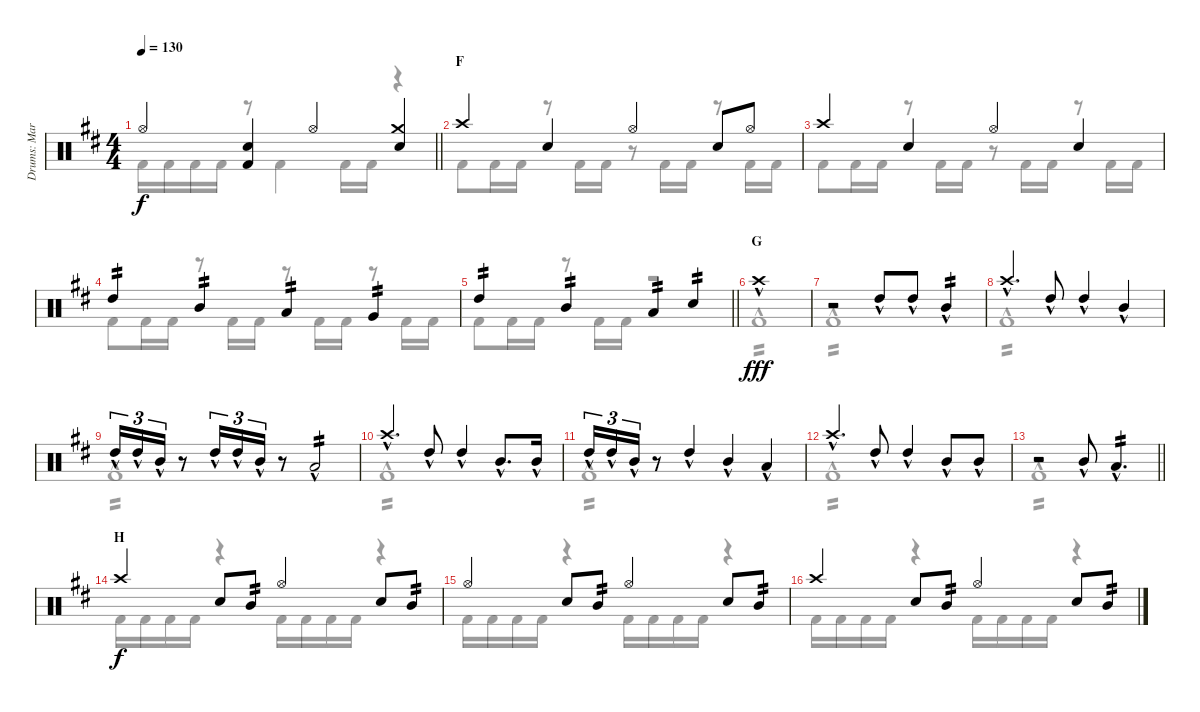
\track ("Drums: Mark" "Drums: Mar") {instrument percussion}
\staff {score}
\articulation defaults
\voice
\ts (4 4)
\tempo 130
\clef neutral
\barLineRight lightlight
\ks d "Hi-Hat (open)".4{dy f}
("Snare (hit) 2" "Kick (hit) 2").4 "Hi-Hat (open)".4 ("Crash medium (hit)" "Snare (hit) 2").4 |
\section ("" "F")
"Crash high (hit)".4 "Snare (hit) 2".4 "Hi-Hat (open)".4 "Snare (hit) 2".8 "Hi-Hat (open)".8 |
"Crash high (hit)".4 "Snare (hit) 2".4 "Hi-Hat (open)".4 "Snare (hit) 2".4 |
"High Tom (hit)".4{tp 2} "Mid Tom (hit)".4{tp 2} "Low Tom (hit)".4{tp 2} "Very Low Tom (hit)".4{tp 2} |
\barLineRight lightlight "High Tom (hit)".4{tp 2} "Mid Tom (hit)".4{tp 2} "Low Tom (hit)".4{tp 2} "Snare (hit) 2".4{tp 2}
|
\section ("" "G")
"Crash high (hit)"{hac}.1{dy fff} |
r.2 "High Tom (hit)"{hac}.8 "High Tom (hit)"{hac}.8 "Mid Tom (hit)"{hac}.4{tp 2} |
"Crash high (hit)"{hac}.4{d} "High Tom (hit)"{hac}.8 "High Tom (hit)"{hac}.4 "Mid Tom (hit)"{hac}.4 |
"High Tom (hit)"{hac}.16{tu (3 2)} "High Tom (hit)"{hac}.16{tu (3 2)} "Mid Tom (hit)"{hac}.16{tu (3 2)} r.8 "High Tom (hit)"{hac}.16{tu (3 2)} "High Tom (hit)"{hac}.16{tu (3 2)} "Mid Tom (hit)"{hac}.16{tu (3 2)} r.8 "Low Tom (hit)"{hac}.2{tp 2} |
"Crash high (hit)"{hac}.4{d} "High Tom (hit)"{hac}.8 "High Tom (hit)"{hac}.4 "Mid Tom (hit)"{hac}.8{d} "Mid Tom (hit)"{hac}.16 |
"High Tom (hit)"{hac}.16{tu (3 2)} "High Tom (hit)"{hac}.16{tu (3 2)} "Mid Tom (hit)"{hac}.16{tu (3 2)} r.8 "High Tom (hit)"{hac}.4 "Mid Tom (hit)"{hac}.4 "Low Tom (hit)"{hac}.4 |
"Crash high (hit)"{hac}.4{d} "High Tom (hit)"{hac}.8 "High Tom (hit)"{hac}.4 "Mid Tom (hit)"{hac}.8 "Mid Tom (hit)"{hac}.8 |
\barLineRight lightlight
r.2 "Mid Tom (hit)"{hac}.8 "Low Tom (hit)"{hac}.4{d tp 2} |
\section ("" "H")
"Crash high (hit)".4{dy f} "Snare (hit) 2".8 "Mid Tom (hit)".8{tp 2} "Hi-Hat (open)".4 "Snare (hit) 2".8 "Mid Tom (hit)".8{tp 2} |
"Hi-Hat (open)".4 "Snare (hit) 2".8 "Mid Tom (hit)".8{tp 2} "Hi-Hat (open)".4 "Snare (hit) 2".8 "Mid Tom (hit)".8{tp 2} |
"Crash high (hit)".4 "Snare (hit) 2".8 "Mid Tom (hit)".8{tp 2} "Hi-Hat (open)".4 "Snare (hit) 2".8 "Mid Tom (hit)".8{tp 2}
\voice
\clef neutral
\ottava regular
\simile none
\barLineRight lightlight
\ks d "Kick (hit) 2".16{dy f} "Kick (hit) 2".16 "Kick (hit) 2".16 "Kick (hit) 2".16
r.8 "Kick (hit) 2".4 "Kick (hit) 2".16 "Kick (hit) 2".16 r.4 |
"Kick (hit) 2".8 "Kick (hit) 2".16 "Kick (hit) 2".16 r.8 "Kick (hit) 2".16 "Kick (hit) 2".16 r.8 "Kick (hit) 2".16 "Kick (hit) 2".16 r.8 "Kick (hit) 2".16 "Kick (hit) 2".16 |
"Kick (hit) 2".8 "Kick (hit) 2".16 "Kick (hit) 2".16 r.8 "Kick (hit) 2".16 "Kick (hit) 2".16 r.8 "Kick (hit) 2".16 "Kick (hit) 2".16 r.8 "Kick (hit) 2".16 "Kick (hit) 2".16 |
"Kick (hit) 2".8 "Kick (hit) 2".16 "Kick (hit) 2".16 r.8 "Kick (hit) 2".16 "Kick (hit) 2".16 r.8 "Kick (hit) 2".16 "Kick (hit) 2".16 r.8 "Kick (hit) 2".16 "Kick (hit) 2".16 |
\barLineRight lightlight "Kick (hit) 2".8 "Kick (hit) 2".16 "Kick (hit) 2".16
r.8 "Kick (hit) 2".16 "Kick (hit) 2".16 r.2 |
"Kick (hit) 2"{hac}.1{tp 2 dy fff} |
"Kick (hit) 2"{hac}.1{tp 2} |
"Kick (hit) 2"{hac}.1{tp 2} |
"Kick (hit) 2"{hac}.1{tp 2} |
"Kick (hit) 2"{hac}.1{tp 2} |
"Kick (hit) 2"{hac}.1{tp 2} |
"Kick (hit) 2"{hac}.1{tp 2} |
\barLineRight lightlight "Kick (hit) 2"{hac}.1{tp 2}
|
"Kick (hit) 2".16{dy f} "Kick (hit) 2".16 "Kick (hit) 2".16 "Kick (hit) 2".16 r.4 "Kick (hit) 2".16 "Kick (hit) 2".16 "Kick (hit) 2".16 "Kick (hit) 2".16 r.4 |
"Kick (hit) 2".16 "Kick (hit) 2".16 "Kick (hit) 2".16 "Kick (hit) 2".16 r.4 "Kick (hit) 2".16 "Kick (hit) 2".16 "Kick (hit) 2".16 "Kick (hit) 2".16 r.4 |
"Kick (hit) 2".16 "Kick (hit) 2".16 "Kick (hit) 2".16 "Kick (hit) 2".16 r.4 "Kick (hit) 2".16 "Kick (hit) 2".16 "Kick (hit) 2".16 "Kick (hit) 2".16 r.4
